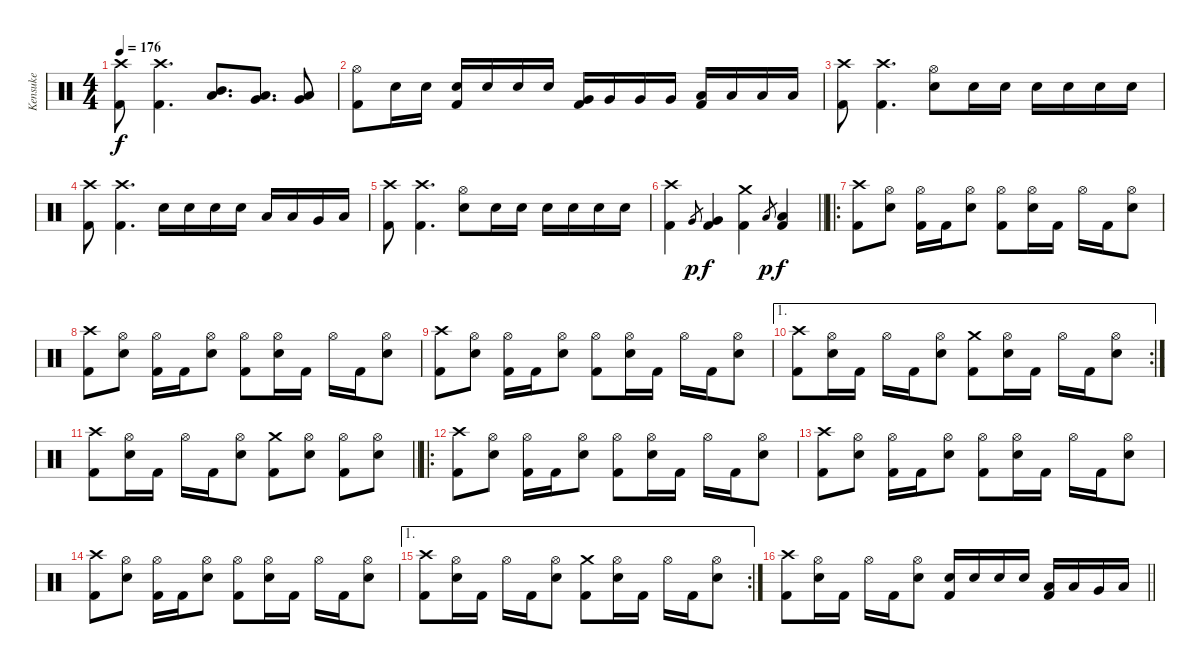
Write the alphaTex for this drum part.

\track ("Kensuke" "Kensuke") {instrument percussion}
\staff {score}
\articulation defaults
\ts (4 4)
\tempo 176
\clef neutral
\ks c
("Crash high (hit)" "Kick (hit) 2").8{dy f} ("Crash high (hit)" "Kick (hit) 2").4{d} ("Mid Tom (hit)" "Low Tom (hit)").8{d} ("Low Tom (hit)" "Very Low Tom (hit)").8{d} ("Very Low Tom (hit)" "Low Floor Tom (hit)").8 |
("Hi-Hat (open)" "Kick (hit) 2").8 "Electric Snare (hit)".16 "Electric Snare (hit)".16 ("Electric Snare (hit)" "Kick (hit) 2").16 "Electric Snare (hit)".16 "Electric Snare (hit)".16 "Electric Snare (hit)".16 ("Very Low Tom (hit)" "Kick (hit) 2").16 "Very Low Tom (hit)".16 "Very Low Tom (hit)".16 "Very Low Tom (hit)".16 ("Low Floor Tom (hit)" "Kick (hit) 2").16 "Low Floor Tom (hit)".16 "Low Floor Tom (hit)".16 "Low Floor Tom (hit)".16 |
("Crash high (hit)" "Kick (hit) 2").8 ("Crash high (hit)" "Kick (hit) 2").4{d} ("Hi-Hat (open)" "Electric Snare (hit)").8 "Electric Snare (hit)".16 "Electric Snare (hit)".16 "Electric Snare (hit)".16 "Electric Snare (hit)".16 "Electric Snare (hit)".16 "Electric Snare (hit)".16 |
("Crash high (hit)" "Kick (hit) 2").8 ("Crash high (hit)" "Kick (hit) 2").4{d} "Electric Snare (hit)".16 "Electric Snare (hit)".16 "Electric Snare (hit)".16 "Electric Snare (hit)".16 "Low Tom (hit)".16 "Low Tom (hit)".16 "Very Low Tom (hit)".16 "Low Floor Tom (hit)".16 |
("Crash high (hit)" "Kick (hit) 2").8 ("Crash high (hit)" "Kick (hit) 2").4{d} ("Hi-Hat (open)" "Electric Snare (hit)").8 "Electric Snare (hit)".16 "Electric Snare (hit)".16 "Electric Snare (hit)".16 "Electric Snare (hit)".16 "Electric Snare (hit)".16 "Electric Snare (hit)".16 |
\barLineRight lightlight
("Crash high (hit)" "Kick (hit) 2").4 "Very Low Tom (hit)".8{gr dy p} ("Very Low Tom (hit)" "Kick (hit) 2").4{dy f} ("Crash medium (hit)" "Kick (hit) 2").4 "Low Floor Tom (hit)".8{gr dy p} ("Low Floor Tom (hit)" "Kick (hit) 2").4{dy f} |
\ro
\section ("" "")
("Crash high (hit)" "Kick (hit) 2").8 ("Hi-Hat (open)" "Electric Snare (hit)").8 ("Hi-Hat (open)" "Kick (hit) 2").16 "Kick (hit) 2".16 ("Hi-Hat (open)" "Electric Snare (hit)").8 ("Hi-Hat (open)" "Kick (hit) 2").8 ("Hi-Hat (open)" "Electric Snare (hit)").16 "Kick (hit) 2".16 "Hi-Hat (open)".16 "Kick (hit) 2".16 ("Hi-Hat (open)" "Electric Snare (hit)").8 |
("Crash high (hit)" "Kick (hit) 2").8 ("Hi-Hat (open)" "Electric Snare (hit)").8 ("Hi-Hat (open)" "Kick (hit) 2").16 "Kick (hit) 2".16 ("Hi-Hat (open)" "Electric Snare (hit)").8 ("Hi-Hat (open)" "Kick (hit) 2").8 ("Hi-Hat (open)" "Electric Snare (hit)").16 "Kick (hit) 2".16 "Hi-Hat (open)".16 "Kick (hit) 2".16 ("Hi-Hat (open)" "Electric Snare (hit)").8 |
("Crash high (hit)" "Kick (hit) 2").8 ("Hi-Hat (open)" "Electric Snare (hit)").8 ("Hi-Hat (open)" "Kick (hit) 2").16 "Kick (hit) 2".16 ("Hi-Hat (open)" "Electric Snare (hit)").8 ("Hi-Hat (open)" "Kick (hit) 2").8 ("Hi-Hat (open)" "Electric Snare (hit)").16 "Kick (hit) 2".16 "Hi-Hat (open)".16 "Kick (hit) 2".16 ("Hi-Hat (open)" "Electric Snare (hit)").8 |
\ae 1
\rc 2
("Crash high (hit)" "Kick (hit) 2").8 ("Hi-Hat (open)" "Electric Snare (hit)").16 "Kick (hit) 2".16 "Hi-Hat (open)".16 "Kick (hit) 2".16 ("Hi-Hat (open)" "Electric Snare (hit)").8 ("Crash medium (hit)" "Kick (hit) 2").8 ("Hi-Hat (open)" "Electric Snare (hit)").16 "Kick (hit) 2".16 "Hi-Hat (open)".16 "Kick (hit) 2".16 ("Hi-Hat (open)" "Electric Snare (hit)").8 |
\barLineRight lightlight
("Crash high (hit)" "Kick (hit) 2").8 ("Hi-Hat (open)" "Electric Snare (hit)").16 "Kick (hit) 2".16 "Hi-Hat (open)".16 "Kick (hit) 2".16 ("Hi-Hat (open)" "Electric Snare (hit)").8 ("Crash medium (hit)" "Kick (hit) 2").8 ("Hi-Hat (open)" "Electric Snare (hit)").8 ("Hi-Hat (open)" "Kick (hit) 2").8 ("Hi-Hat (open)" "Electric Snare (hit)").8 |
\ro
\section ("" "")
("Crash high (hit)" "Kick (hit) 2").8 ("Hi-Hat (open)" "Electric Snare (hit)").8 ("Hi-Hat (open)" "Kick (hit) 2").16 "Kick (hit) 2".16 ("Hi-Hat (open)" "Electric Snare (hit)").8 ("Hi-Hat (open)" "Kick (hit) 2").8 ("Hi-Hat (open)" "Electric Snare (hit)").16 "Kick (hit) 2".16 "Hi-Hat (open)".16 "Kick (hit) 2".16 ("Hi-Hat (open)" "Electric Snare (hit)").8 |
("Crash high (hit)" "Kick (hit) 2").8 ("Hi-Hat (open)" "Electric Snare (hit)").8 ("Hi-Hat (open)" "Kick (hit) 2").16 "Kick (hit) 2".16 ("Hi-Hat (open)" "Electric Snare (hit)").8 ("Hi-Hat (open)" "Kick (hit) 2").8 ("Hi-Hat (open)" "Electric Snare (hit)").16 "Kick (hit) 2".16 "Hi-Hat (open)".16 "Kick (hit) 2".16 ("Hi-Hat (open)" "Electric Snare (hit)").8 |
("Crash high (hit)" "Kick (hit) 2").8 ("Hi-Hat (open)" "Electric Snare (hit)").8 ("Hi-Hat (open)" "Kick (hit) 2").16 "Kick (hit) 2".16 ("Hi-Hat (open)" "Electric Snare (hit)").8 ("Hi-Hat (open)" "Kick (hit) 2").8 ("Hi-Hat (open)" "Electric Snare (hit)").16 "Kick (hit) 2".16 "Hi-Hat (open)".16 "Kick (hit) 2".16 ("Hi-Hat (open)" "Electric Snare (hit)").8 |
\ae 1
\rc 2
("Crash high (hit)" "Kick (hit) 2").8 ("Hi-Hat (open)" "Electric Snare (hit)").16 "Kick (hit) 2".16 "Hi-Hat (open)".16 "Kick (hit) 2".16 ("Hi-Hat (open)" "Electric Snare (hit)").8 ("Crash medium (hit)" "Kick (hit) 2").8 ("Hi-Hat (open)" "Electric Snare (hit)").16 "Kick (hit) 2".16 "Hi-Hat (open)".16 "Kick (hit) 2".16 ("Hi-Hat (open)" "Electric Snare (hit)").8 |
\barLineRight lightlight
("Crash high (hit)" "Kick (hit) 2").8 ("Hi-Hat (open)" "Electric Snare (hit)").16 "Kick (hit) 2".16 "Hi-Hat (open)".16 "Kick (hit) 2".16 ("Hi-Hat (open)" "Electric Snare (hit)").8 ("Electric Snare (hit)" "Kick (hit) 2").16 "Electric Snare (hit)".16 "Electric Snare (hit)".16 "Electric Snare (hit)".16 ("Low Tom (hit)" "Kick (hit) 2").16 "Low Tom (hit)".16 "Very Low Tom (hit)".16 "Low Floor Tom (hit)".16
